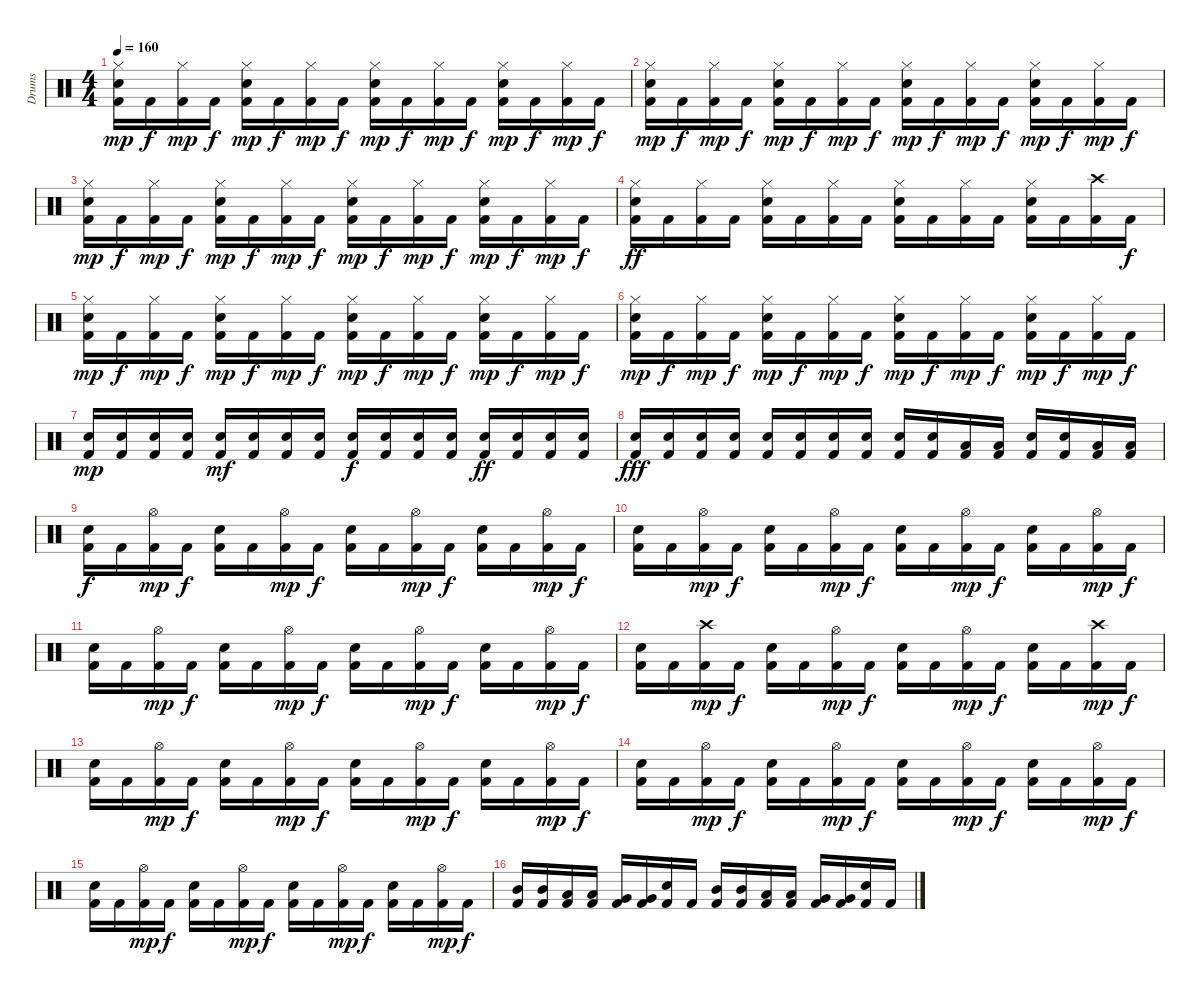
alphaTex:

\track ("Drums" "Drums") {instrument percussion}
\staff {score}
\articulation defaults
\ts (4 4)
\tempo 160
\clef neutral
\ks c
("Hi-Hat (closed)" "Electric Snare (hit)" "Kick (hit) 2").16{dy mp} "Kick (hit) 2".16{dy f} ("Hi-Hat (closed)" "Kick (hit) 2").16{dy mp} "Kick (hit) 2".16{dy f} ("Hi-Hat (closed)" "Electric Snare (hit)" "Kick (hit) 2").16{dy mp} "Kick (hit) 2".16{dy f} ("Hi-Hat (closed)" "Kick (hit) 2").16{dy mp} "Kick (hit) 2".16{dy f} ("Hi-Hat (closed)" "Electric Snare (hit)" "Kick (hit) 2").16{dy mp} "Kick (hit) 2".16{dy f} ("Hi-Hat (closed)" "Kick (hit) 2").16{dy mp} "Kick (hit) 2".16{dy f} ("Hi-Hat (closed)" "Electric Snare (hit)" "Kick (hit) 2").16{dy mp} "Kick (hit) 2".16{dy f} ("Hi-Hat (closed)" "Kick (hit) 2").16{dy mp} "Kick (hit) 2".16{dy f} |
("Hi-Hat (closed)" "Electric Snare (hit)" "Kick (hit) 2").16{dy mp} "Kick (hit) 2".16{dy f} ("Hi-Hat (closed)" "Kick (hit) 2").16{dy mp} "Kick (hit) 2".16{dy f} ("Hi-Hat (closed)" "Electric Snare (hit)" "Kick (hit) 2").16{dy mp} "Kick (hit) 2".16{dy f} ("Hi-Hat (closed)" "Kick (hit) 2").16{dy mp} "Kick (hit) 2".16{dy f} ("Hi-Hat (closed)" "Electric Snare (hit)" "Kick (hit) 2").16{dy mp} "Kick (hit) 2".16{dy f} ("Hi-Hat (closed)" "Kick (hit) 2").16{dy mp} "Kick (hit) 2".16{dy f} ("Hi-Hat (closed)" "Electric Snare (hit)" "Kick (hit) 2").16{dy mp} "Kick (hit) 2".16{dy f} ("Hi-Hat (closed)" "Kick (hit) 2").16{dy mp} "Kick (hit) 2".16{dy f} |
("Hi-Hat (closed)" "Electric Snare (hit)" "Kick (hit) 2").16{dy mp} "Kick (hit) 2".16{dy f} ("Hi-Hat (closed)" "Kick (hit) 2").16{dy mp} "Kick (hit) 2".16{dy f} ("Hi-Hat (closed)" "Electric Snare (hit)" "Kick (hit) 2").16{dy mp} "Kick (hit) 2".16{dy f} ("Hi-Hat (closed)" "Kick (hit) 2").16{dy mp} "Kick (hit) 2".16{dy f} ("Hi-Hat (closed)" "Electric Snare (hit)" "Kick (hit) 2").16{dy mp} "Kick (hit) 2".16{dy f} ("Hi-Hat (closed)" "Kick (hit) 2").16{dy mp} "Kick (hit) 2".16{dy f} ("Hi-Hat (closed)" "Electric Snare (hit)" "Kick (hit) 2").16{dy mp} "Kick (hit) 2".16{dy f} ("Hi-Hat (closed)" "Kick (hit) 2").16{dy mp} "Kick (hit) 2".16{dy f} |
("Hi-Hat (closed)" "Electric Snare (hit)" "Kick (hit) 2").16{dy ff} "Kick (hit) 2".16 ("Hi-Hat (closed)" "Kick (hit) 2").16 "Kick (hit) 2".16 ("Hi-Hat (closed)" "Electric Snare (hit)" "Kick (hit) 2").16 "Kick (hit) 2".16 ("Hi-Hat (closed)" "Kick (hit) 2").16 "Kick (hit) 2".16 ("Hi-Hat (closed)" "Electric Snare (hit)" "Kick (hit) 2").16 "Kick (hit) 2".16 ("Hi-Hat (closed)" "Kick (hit) 2").16 "Kick (hit) 2".16 ("Hi-Hat (closed)" "Electric Snare (hit)" "Kick (hit) 2").16 "Kick (hit) 2".16 ("Crash high (hit)" "Kick (hit) 2").16 "Kick (hit) 2".16{dy f} |
("Hi-Hat (closed)" "Electric Snare (hit)" "Kick (hit) 2").16{dy mp} "Kick (hit) 2".16{dy f} ("Hi-Hat (closed)" "Kick (hit) 2").16{dy mp} "Kick (hit) 2".16{dy f} ("Hi-Hat (closed)" "Electric Snare (hit)" "Kick (hit) 2").16{dy mp} "Kick (hit) 2".16{dy f} ("Hi-Hat (closed)" "Kick (hit) 2").16{dy mp} "Kick (hit) 2".16{dy f} ("Hi-Hat (closed)" "Electric Snare (hit)" "Kick (hit) 2").16{dy mp} "Kick (hit) 2".16{dy f} ("Hi-Hat (closed)" "Kick (hit) 2").16{dy mp} "Kick (hit) 2".16{dy f} ("Hi-Hat (closed)" "Electric Snare (hit)" "Kick (hit) 2").16{dy mp} "Kick (hit) 2".16{dy f} ("Hi-Hat (closed)" "Kick (hit) 2").16{dy mp} "Kick (hit) 2".16{dy f} |
("Hi-Hat (closed)" "Electric Snare (hit)" "Kick (hit) 2").16{dy mp} "Kick (hit) 2".16{dy f} ("Hi-Hat (closed)" "Kick (hit) 2").16{dy mp} "Kick (hit) 2".16{dy f} ("Hi-Hat (closed)" "Electric Snare (hit)" "Kick (hit) 2").16{dy mp} "Kick (hit) 2".16{dy f} ("Hi-Hat (closed)" "Kick (hit) 2").16{dy mp} "Kick (hit) 2".16{dy f} ("Hi-Hat (closed)" "Electric Snare (hit)" "Kick (hit) 2").16{dy mp} "Kick (hit) 2".16{dy f} ("Hi-Hat (closed)" "Kick (hit) 2").16{dy mp} "Kick (hit) 2".16{dy f} ("Hi-Hat (closed)" "Electric Snare (hit)" "Kick (hit) 2").16{dy mp} "Kick (hit) 2".16{dy f} ("Hi-Hat (closed)" "Kick (hit) 2").16{dy mp} "Kick (hit) 2".16{dy f} |
("Electric Snare (hit)" "Kick (hit) 2").16{dy mp} ("Electric Snare (hit)" "Kick (hit) 2").16 ("Electric Snare (hit)" "Kick (hit) 2").16 ("Electric Snare (hit)" "Kick (hit) 2").16 ("Electric Snare (hit)" "Kick (hit) 2").16{dy mf} ("Electric Snare (hit)" "Kick (hit) 2").16 ("Electric Snare (hit)" "Kick (hit) 2").16 ("Electric Snare (hit)" "Kick (hit) 2").16 ("Electric Snare (hit)" "Kick (hit) 2").16{dy f} ("Electric Snare (hit)" "Kick (hit) 2").16 ("Electric Snare (hit)" "Kick (hit) 2").16 ("Electric Snare (hit)" "Kick (hit) 2").16 ("Electric Snare (hit)" "Kick (hit) 2").16{dy ff} ("Electric Snare (hit)" "Kick (hit) 2").16 ("Electric Snare (hit)" "Kick (hit) 2").16 ("Electric Snare (hit)" "Kick (hit) 2").16 |
("Electric Snare (hit)" "Kick (hit) 2").16{dy fff} ("Electric Snare (hit)" "Kick (hit) 2").16 ("Electric Snare (hit)" "Kick (hit) 2").16 ("Electric Snare (hit)" "Kick (hit) 2").16 ("Electric Snare (hit)" "Kick (hit) 2").16 ("Electric Snare (hit)" "Kick (hit) 2").16 ("Electric Snare (hit)" "Kick (hit) 2").16 ("Electric Snare (hit)" "Kick (hit) 2").16 ("Electric Snare (hit)" "Kick (hit) 2").16 ("Electric Snare (hit)" "Kick (hit) 2").16 ("Low Floor Tom (hit)" "Kick (hit) 2").16 ("Low Floor Tom (hit)" "Kick (hit) 2").16 ("Electric Snare (hit)" "Kick (hit) 2").16 ("Electric Snare (hit)" "Kick (hit) 2").16 ("Low Floor Tom (hit)" "Kick (hit) 2").16 ("Low Floor Tom (hit)" "Kick (hit) 2").16 |
("Electric Snare (hit)" "Kick (hit) 2").16{dy f} "Kick (hit) 2".16 ("Hi-Hat (open)" "Kick (hit) 2").16{dy mp} "Kick (hit) 2".16{dy f} ("Electric Snare (hit)" "Kick (hit) 2").16 "Kick (hit) 2".16 ("Hi-Hat (open)" "Kick (hit) 2").16{dy mp} "Kick (hit) 2".16{dy f} ("Electric Snare (hit)" "Kick (hit) 2").16 "Kick (hit) 2".16 ("Hi-Hat (open)" "Kick (hit) 2").16{dy mp} "Kick (hit) 2".16{dy f} ("Electric Snare (hit)" "Kick (hit) 2").16 "Kick (hit) 2".16 ("Hi-Hat (open)" "Kick (hit) 2").16{dy mp} "Kick (hit) 2".16{dy f} |
("Electric Snare (hit)" "Kick (hit) 2").16 "Kick (hit) 2".16 ("Hi-Hat (open)" "Kick (hit) 2").16{dy mp} "Kick (hit) 2".16{dy f} ("Electric Snare (hit)" "Kick (hit) 2").16 "Kick (hit) 2".16 ("Hi-Hat (open)" "Kick (hit) 2").16{dy mp} "Kick (hit) 2".16{dy f} ("Electric Snare (hit)" "Kick (hit) 2").16 "Kick (hit) 2".16 ("Hi-Hat (open)" "Kick (hit) 2").16{dy mp} "Kick (hit) 2".16{dy f} ("Electric Snare (hit)" "Kick (hit) 2").16 "Kick (hit) 2".16 ("Hi-Hat (open)" "Kick (hit) 2").16{dy mp} "Kick (hit) 2".16{dy f} |
("Electric Snare (hit)" "Kick (hit) 2").16 "Kick (hit) 2".16 ("Hi-Hat (open)" "Kick (hit) 2").16{dy mp} "Kick (hit) 2".16{dy f} ("Electric Snare (hit)" "Kick (hit) 2").16 "Kick (hit) 2".16 ("Hi-Hat (open)" "Kick (hit) 2").16{dy mp} "Kick (hit) 2".16{dy f} ("Electric Snare (hit)" "Kick (hit) 2").16 "Kick (hit) 2".16 ("Hi-Hat (open)" "Kick (hit) 2").16{dy mp} "Kick (hit) 2".16{dy f} ("Electric Snare (hit)" "Kick (hit) 2").16 "Kick (hit) 2".16 ("Hi-Hat (open)" "Kick (hit) 2").16{dy mp} "Kick (hit) 2".16{dy f} |
("Electric Snare (hit)" "Kick (hit) 2").16 "Kick (hit) 2".16 ("Crash high (hit)" "Kick (hit) 2").16{dy mp} "Kick (hit) 2".16{dy f} ("Electric Snare (hit)" "Kick (hit) 2").16 "Kick (hit) 2".16 ("Hi-Hat (open)" "Kick (hit) 2").16{dy mp} "Kick (hit) 2".16{dy f} ("Electric Snare (hit)" "Kick (hit) 2").16 "Kick (hit) 2".16 ("Hi-Hat (open)" "Kick (hit) 2").16{dy mp} "Kick (hit) 2".16{dy f} ("Electric Snare (hit)" "Kick (hit) 2").16 "Kick (hit) 2".16 ("Crash high (hit)" "Kick (hit) 2").16{dy mp} "Kick (hit) 2".16{dy f} |
("Electric Snare (hit)" "Kick (hit) 2").16 "Kick (hit) 2".16 ("Hi-Hat (open)" "Kick (hit) 2").16{dy mp} "Kick (hit) 2".16{dy f} ("Electric Snare (hit)" "Kick (hit) 2").16 "Kick (hit) 2".16 ("Hi-Hat (open)" "Kick (hit) 2").16{dy mp} "Kick (hit) 2".16{dy f} ("Electric Snare (hit)" "Kick (hit) 2").16 "Kick (hit) 2".16 ("Hi-Hat (open)" "Kick (hit) 2").16{dy mp} "Kick (hit) 2".16{dy f} ("Electric Snare (hit)" "Kick (hit) 2").16 "Kick (hit) 2".16 ("Hi-Hat (open)" "Kick (hit) 2").16{dy mp} "Kick (hit) 2".16{dy f} |
("Electric Snare (hit)" "Kick (hit) 2").16 "Kick (hit) 2".16 ("Hi-Hat (open)" "Kick (hit) 2").16{dy mp} "Kick (hit) 2".16{dy f} ("Electric Snare (hit)" "Kick (hit) 2").16 "Kick (hit) 2".16 ("Hi-Hat (open)" "Kick (hit) 2").16{dy mp} "Kick (hit) 2".16{dy f} ("Electric Snare (hit)" "Kick (hit) 2").16 "Kick (hit) 2".16 ("Hi-Hat (open)" "Kick (hit) 2").16{dy mp} "Kick (hit) 2".16{dy f} ("Electric Snare (hit)" "Kick (hit) 2").16 "Kick (hit) 2".16 ("Hi-Hat (open)" "Kick (hit) 2").16{dy mp} "Kick (hit) 2".16{dy f} |
("Electric Snare (hit)" "Kick (hit) 2").16 "Kick (hit) 2".16 ("Hi-Hat (open)" "Kick (hit) 2").16{dy mp} "Kick (hit) 2".16{dy f} ("Electric Snare (hit)" "Kick (hit) 2").16 "Kick (hit) 2".16 ("Hi-Hat (open)" "Kick (hit) 2").16{dy mp} "Kick (hit) 2".16{dy f} ("Electric Snare (hit)" "Kick (hit) 2").16 "Kick (hit) 2".16 ("Hi-Hat (open)" "Kick (hit) 2").16{dy mp} "Kick (hit) 2".16{dy f} ("Electric Snare (hit)" "Kick (hit) 2").16 "Kick (hit) 2".16 ("Hi-Hat (open)" "Kick (hit) 2").16{dy mp} "Kick (hit) 2".16{dy f} |
("Mid Tom (hit)" "Kick (hit) 2").16 ("Mid Tom (hit)" "Kick (hit) 2").16 ("Low Tom (hit)" "Kick (hit) 2").16 ("Low Tom (hit)" "Kick (hit) 2").16 ("Very Low Tom (hit)" "Kick (hit) 2").16 ("Very Low Tom (hit)" "Kick (hit) 2").16 ("Electric Snare (hit)" "Kick (hit) 2").16 "Kick (hit) 2".16 ("Mid Tom (hit)" "Kick (hit) 2").16 ("Mid Tom (hit)" "Kick (hit) 2").16 ("Low Tom (hit)" "Kick (hit) 2").16 ("Low Tom (hit)" "Kick (hit) 2").16 ("Very Low Tom (hit)" "Kick (hit) 2").16 ("Very Low Tom (hit)" "Kick (hit) 2").16 ("Electric Snare (hit)" "Kick (hit) 2").16 "Kick (hit) 2".16
